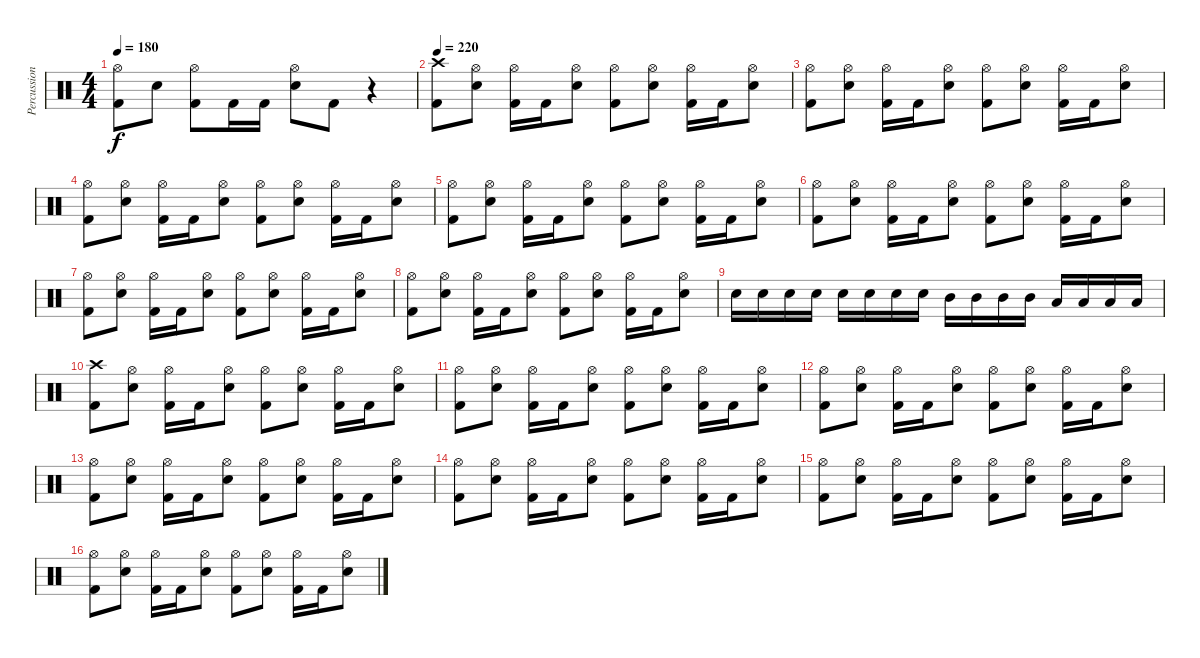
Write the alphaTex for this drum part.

\track ("Percussions" "Percussion") {instrument percussion}
\staff {score}
\articulation defaults
\ts (4 4)
\tempo 180
\clef neutral
\ks c
("Hi-Hat (open)" "Kick (hit) 2").8{dy f} "Snare (hit) 2".8 ("Hi-Hat (open)" "Kick (hit) 2").8 "Kick (hit) 2".16 "Kick (hit) 2".16 ("Hi-Hat (open)" "Snare (hit) 2").8 "Kick (hit) 2".8 r.4 |
\tempo 220
("Crash high (hit)" "Kick (hit) 2").8 ("Hi-Hat (open)" "Snare (hit) 2").8 ("Hi-Hat (open)" "Kick (hit) 2").16 "Kick (hit) 2".16 ("Hi-Hat (open)" "Snare (hit) 2").8 ("Hi-Hat (open)" "Kick (hit) 2").8 ("Hi-Hat (open)" "Snare (hit) 2").8 ("Hi-Hat (open)" "Kick (hit) 2").16 "Kick (hit) 2".16 ("Hi-Hat (open)" "Snare (hit) 2").8 |
("Hi-Hat (open)" "Kick (hit) 2").8 ("Hi-Hat (open)" "Snare (hit) 2").8 ("Hi-Hat (open)" "Kick (hit) 2").16 "Kick (hit) 2".16 ("Hi-Hat (open)" "Snare (hit) 2").8 ("Hi-Hat (open)" "Kick (hit) 2").8 ("Hi-Hat (open)" "Snare (hit) 2").8 ("Hi-Hat (open)" "Kick (hit) 2").16 "Kick (hit) 2".16 ("Hi-Hat (open)" "Snare (hit) 2").8 |
("Hi-Hat (open)" "Kick (hit) 2").8 ("Hi-Hat (open)" "Snare (hit) 2").8 ("Hi-Hat (open)" "Kick (hit) 2").16 "Kick (hit) 2".16 ("Hi-Hat (open)" "Snare (hit) 2").8 ("Hi-Hat (open)" "Kick (hit) 2").8 ("Hi-Hat (open)" "Snare (hit) 2").8 ("Hi-Hat (open)" "Kick (hit) 2").16 "Kick (hit) 2".16 ("Hi-Hat (open)" "Snare (hit) 2").8 |
("Hi-Hat (open)" "Kick (hit) 2").8 ("Hi-Hat (open)" "Snare (hit) 2").8 ("Hi-Hat (open)" "Kick (hit) 2").16 "Kick (hit) 2".16 ("Hi-Hat (open)" "Snare (hit) 2").8 ("Hi-Hat (open)" "Kick (hit) 2").8 ("Hi-Hat (open)" "Snare (hit) 2").8 ("Hi-Hat (open)" "Kick (hit) 2").16 "Kick (hit) 2".16 ("Hi-Hat (open)" "Snare (hit) 2").8 |
("Hi-Hat (open)" "Kick (hit) 2").8 ("Hi-Hat (open)" "Snare (hit) 2").8 ("Hi-Hat (open)" "Kick (hit) 2").16 "Kick (hit) 2".16 ("Hi-Hat (open)" "Snare (hit) 2").8 ("Hi-Hat (open)" "Kick (hit) 2").8 ("Hi-Hat (open)" "Snare (hit) 2").8 ("Hi-Hat (open)" "Kick (hit) 2").16 "Kick (hit) 2".16 ("Hi-Hat (open)" "Snare (hit) 2").8 |
("Hi-Hat (open)" "Kick (hit) 2").8 ("Hi-Hat (open)" "Snare (hit) 2").8 ("Hi-Hat (open)" "Kick (hit) 2").16 "Kick (hit) 2".16 ("Hi-Hat (open)" "Snare (hit) 2").8 ("Hi-Hat (open)" "Kick (hit) 2").8 ("Hi-Hat (open)" "Snare (hit) 2").8 ("Hi-Hat (open)" "Kick (hit) 2").16 "Kick (hit) 2".16 ("Hi-Hat (open)" "Snare (hit) 2").8 |
("Hi-Hat (open)" "Kick (hit) 2").8 ("Hi-Hat (open)" "Snare (hit) 2").8 ("Hi-Hat (open)" "Kick (hit) 2").16 "Kick (hit) 2".16 ("Hi-Hat (open)" "Snare (hit) 2").8 ("Hi-Hat (open)" "Kick (hit) 2").8 ("Hi-Hat (open)" "Snare (hit) 2").8 ("Hi-Hat (open)" "Kick (hit) 2").16 "Kick (hit) 2".16 ("Hi-Hat (open)" "Snare (hit) 2").8 |
"Snare (hit) 2".16 "Snare (hit) 2".16 "Snare (hit) 2".16 "Snare (hit) 2".16 "Snare (hit) 2".16 "Snare (hit) 2".16 "Snare (hit) 2".16 "Snare (hit) 2".16 "Mid Tom (hit)".16 "Mid Tom (hit)".16 "Mid Tom (hit)".16 "Mid Tom (hit)".16 "Low Tom (hit)".16 "Low Tom (hit)".16 "Low Tom (hit)".16 "Low Tom (hit)".16 |
("Crash high (hit)" "Kick (hit) 2").8 ("Hi-Hat (open)" "Snare (hit) 2").8 ("Hi-Hat (open)" "Kick (hit) 2").16 "Kick (hit) 2".16 ("Hi-Hat (open)" "Snare (hit) 2").8 ("Hi-Hat (open)" "Kick (hit) 2").8 ("Hi-Hat (open)" "Snare (hit) 2").8 ("Hi-Hat (open)" "Kick (hit) 2").16 "Kick (hit) 2".16 ("Hi-Hat (open)" "Snare (hit) 2").8 |
("Hi-Hat (open)" "Kick (hit) 2").8 ("Hi-Hat (open)" "Snare (hit) 2").8 ("Hi-Hat (open)" "Kick (hit) 2").16 "Kick (hit) 2".16 ("Hi-Hat (open)" "Snare (hit) 2").8 ("Hi-Hat (open)" "Kick (hit) 2").8 ("Hi-Hat (open)" "Snare (hit) 2").8 ("Hi-Hat (open)" "Kick (hit) 2").16 "Kick (hit) 2".16 ("Hi-Hat (open)" "Snare (hit) 2").8 |
("Hi-Hat (open)" "Kick (hit) 2").8 ("Hi-Hat (open)" "Snare (hit) 2").8 ("Hi-Hat (open)" "Kick (hit) 2").16 "Kick (hit) 2".16 ("Hi-Hat (open)" "Snare (hit) 2").8 ("Hi-Hat (open)" "Kick (hit) 2").8 ("Hi-Hat (open)" "Snare (hit) 2").8 ("Hi-Hat (open)" "Kick (hit) 2").16 "Kick (hit) 2".16 ("Hi-Hat (open)" "Snare (hit) 2").8 |
("Hi-Hat (open)" "Kick (hit) 2").8 ("Hi-Hat (open)" "Snare (hit) 2").8 ("Hi-Hat (open)" "Kick (hit) 2").16 "Kick (hit) 2".16 ("Hi-Hat (open)" "Snare (hit) 2").8 ("Hi-Hat (open)" "Kick (hit) 2").8 ("Hi-Hat (open)" "Snare (hit) 2").8 ("Hi-Hat (open)" "Kick (hit) 2").16 "Kick (hit) 2".16 ("Hi-Hat (open)" "Snare (hit) 2").8 |
("Hi-Hat (open)" "Kick (hit) 2").8 ("Hi-Hat (open)" "Snare (hit) 2").8 ("Hi-Hat (open)" "Kick (hit) 2").16 "Kick (hit) 2".16 ("Hi-Hat (open)" "Snare (hit) 2").8 ("Hi-Hat (open)" "Kick (hit) 2").8 ("Hi-Hat (open)" "Snare (hit) 2").8 ("Hi-Hat (open)" "Kick (hit) 2").16 "Kick (hit) 2".16 ("Hi-Hat (open)" "Snare (hit) 2").8 |
("Hi-Hat (open)" "Kick (hit) 2").8 ("Hi-Hat (open)" "Snare (hit) 2").8 ("Hi-Hat (open)" "Kick (hit) 2").16 "Kick (hit) 2".16 ("Hi-Hat (open)" "Snare (hit) 2").8 ("Hi-Hat (open)" "Kick (hit) 2").8 ("Hi-Hat (open)" "Snare (hit) 2").8 ("Hi-Hat (open)" "Kick (hit) 2").16 "Kick (hit) 2".16 ("Hi-Hat (open)" "Snare (hit) 2").8 |
("Hi-Hat (open)" "Kick (hit) 2").8 ("Hi-Hat (open)" "Snare (hit) 2").8 ("Hi-Hat (open)" "Kick (hit) 2").16 "Kick (hit) 2".16 ("Hi-Hat (open)" "Snare (hit) 2").8 ("Hi-Hat (open)" "Kick (hit) 2").8 ("Hi-Hat (open)" "Snare (hit) 2").8 ("Hi-Hat (open)" "Kick (hit) 2").16 "Kick (hit) 2".16 ("Hi-Hat (open)" "Snare (hit) 2").8
